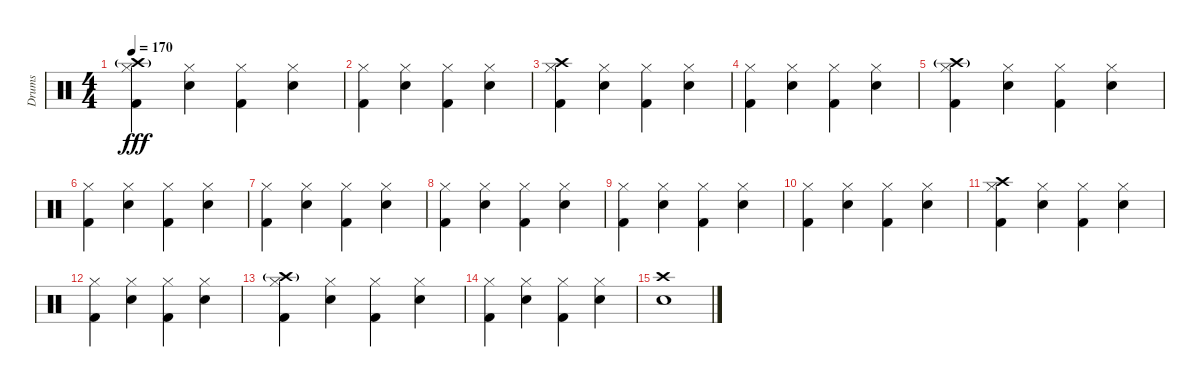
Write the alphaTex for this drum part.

\track ("Drums" "Drums") {instrument percussion}
\staff {score}
\articulation defaults
\ts (4 4)
\tempo 170
\clef neutral
\ks c
("Crash high (hit)"{g} "Hi-Hat (closed)" "Kick (hit) 2").4{dy fff} ("Hi-Hat (closed)" "Electric Snare (hit)").4 ("Hi-Hat (closed)" "Kick (hit) 2").4 ("Hi-Hat (closed)" "Electric Snare (hit)").4 |
("Hi-Hat (closed)" "Kick (hit) 2").4 ("Hi-Hat (closed)" "Electric Snare (hit)").4 ("Hi-Hat (closed)" "Kick (hit) 2").4 ("Hi-Hat (closed)" "Electric Snare (hit)").4 |
("Crash high (hit)" "Hi-Hat (closed)" "Kick (hit) 2").4 ("Hi-Hat (closed)" "Electric Snare (hit)").4 ("Hi-Hat (closed)" "Kick (hit) 2").4 ("Hi-Hat (closed)" "Electric Snare (hit)").4 |
("Hi-Hat (closed)" "Kick (hit) 2").4 ("Hi-Hat (closed)" "Electric Snare (hit)").4 ("Hi-Hat (closed)" "Kick (hit) 2").4 ("Hi-Hat (closed)" "Electric Snare (hit)").4 |
("Crash high (hit)"{g} "Hi-Hat (closed)" "Kick (hit) 2").4 ("Hi-Hat (closed)" "Electric Snare (hit)").4 ("Hi-Hat (closed)" "Kick (hit) 2").4 ("Hi-Hat (closed)" "Electric Snare (hit)").4 |
("Hi-Hat (closed)" "Kick (hit) 2").4 ("Hi-Hat (closed)" "Electric Snare (hit)").4 ("Hi-Hat (closed)" "Kick (hit) 2").4 ("Hi-Hat (closed)" "Electric Snare (hit)").4 |
("Hi-Hat (closed)" "Kick (hit) 2").4 ("Hi-Hat (closed)" "Electric Snare (hit)").4 ("Hi-Hat (closed)" "Kick (hit) 2").4 ("Hi-Hat (closed)" "Electric Snare (hit)").4 |
("Hi-Hat (closed)" "Kick (hit) 2").4 ("Hi-Hat (closed)" "Electric Snare (hit)").4 ("Hi-Hat (closed)" "Kick (hit) 2").4 ("Hi-Hat (closed)" "Electric Snare (hit)").4 |
("Hi-Hat (closed)" "Kick (hit) 2").4 ("Hi-Hat (closed)" "Electric Snare (hit)").4 ("Hi-Hat (closed)" "Kick (hit) 2").4 ("Hi-Hat (closed)" "Electric Snare (hit)").4 |
("Hi-Hat (closed)" "Kick (hit) 2").4 ("Hi-Hat (closed)" "Electric Snare (hit)").4 ("Hi-Hat (closed)" "Kick (hit) 2").4 ("Hi-Hat (closed)" "Electric Snare (hit)").4 |
("Crash high (hit)" "Hi-Hat (closed)" "Kick (hit) 2").4 ("Hi-Hat (closed)" "Electric Snare (hit)").4 ("Hi-Hat (closed)" "Kick (hit) 2").4 ("Hi-Hat (closed)" "Electric Snare (hit)").4 |
("Hi-Hat (closed)" "Kick (hit) 2").4 ("Hi-Hat (closed)" "Electric Snare (hit)").4 ("Hi-Hat (closed)" "Kick (hit) 2").4 ("Hi-Hat (closed)" "Electric Snare (hit)").4 |
("Crash high (hit)"{g} "Hi-Hat (closed)" "Kick (hit) 2").4 ("Hi-Hat (closed)" "Electric Snare (hit)").4 ("Hi-Hat (closed)" "Kick (hit) 2").4 ("Hi-Hat (closed)" "Electric Snare (hit)").4 |
("Hi-Hat (closed)" "Kick (hit) 2").4 ("Hi-Hat (closed)" "Electric Snare (hit)").4 ("Hi-Hat (closed)" "Kick (hit) 2").4 ("Hi-Hat (closed)" "Electric Snare (hit)").4 |
("Crash high (hit)" "Electric Snare (hit)").1
